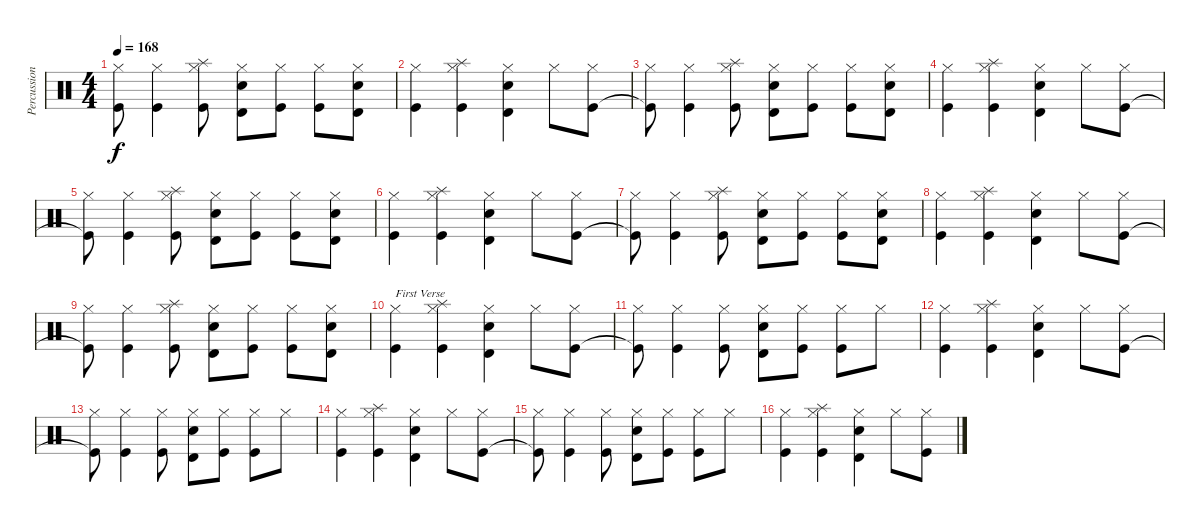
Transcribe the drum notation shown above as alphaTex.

\track ("Percussion" "Percussion") {instrument percussion}
\staff {score}
\articulation defaults
\ts (4 4)
\tempo 168
\clef neutral
\ks c
("Hi-Hat (closed)" "Kick (hit)"{t}).8{dy f} ("Hi-Hat (closed)" "Kick (hit)").4 ("Hi-Hat (closed)" "Splash (hit)" "Kick (hit)").8 ("Hi-Hat (closed)" "Timbale high (hit)" "Electric Snare (hit)").8 ("Hi-Hat (closed)" "Kick (hit)").8 ("Hi-Hat (closed)" "Kick (hit)").8 ("Hi-Hat (closed)" "Timbale high (hit)" "Electric Snare (hit)").8 |
("Hi-Hat (closed)" "Kick (hit)").4 ("Hi-Hat (closed)" "Splash (hit)" "Kick (hit)").4 ("Hi-Hat (closed)" "Timbale high (hit)" "Electric Snare (hit)").4 "Hi-Hat (closed)".8 ("Hi-Hat (closed)" "Kick (hit)").8 |
("Hi-Hat (closed)" "Kick (hit)"{t}).8 ("Hi-Hat (closed)" "Kick (hit)").4 ("Hi-Hat (closed)" "Splash (hit)" "Kick (hit)").8 ("Hi-Hat (closed)" "Timbale high (hit)" "Electric Snare (hit)").8 ("Hi-Hat (closed)" "Kick (hit)").8 ("Hi-Hat (closed)" "Kick (hit)").8 ("Hi-Hat (closed)" "Timbale high (hit)" "Electric Snare (hit)").8 |
("Hi-Hat (closed)" "Kick (hit)").4 ("Hi-Hat (closed)" "Splash (hit)" "Kick (hit)").4 ("Hi-Hat (closed)" "Timbale high (hit)" "Electric Snare (hit)").4 "Hi-Hat (closed)".8 ("Hi-Hat (closed)" "Kick (hit)").8 |
("Hi-Hat (closed)" "Kick (hit)"{t}).8 ("Hi-Hat (closed)" "Kick (hit)").4 ("Hi-Hat (closed)" "Splash (hit)" "Kick (hit)").8 ("Hi-Hat (closed)" "Timbale high (hit)" "Electric Snare (hit)").8 ("Hi-Hat (closed)" "Kick (hit)").8 ("Hi-Hat (closed)" "Kick (hit)").8 ("Hi-Hat (closed)" "Timbale high (hit)" "Electric Snare (hit)").8 |
("Hi-Hat (closed)" "Kick (hit)").4 ("Hi-Hat (closed)" "Splash (hit)" "Kick (hit)").4 ("Hi-Hat (closed)" "Timbale high (hit)" "Electric Snare (hit)").4 "Hi-Hat (closed)".8 ("Hi-Hat (closed)" "Kick (hit)").8 |
("Hi-Hat (closed)" "Kick (hit)"{t}).8 ("Hi-Hat (closed)" "Kick (hit)").4 ("Hi-Hat (closed)" "Splash (hit)" "Kick (hit)").8 ("Hi-Hat (closed)" "Timbale high (hit)" "Electric Snare (hit)").8 ("Hi-Hat (closed)" "Kick (hit)").8 ("Hi-Hat (closed)" "Kick (hit)").8 ("Hi-Hat (closed)" "Timbale high (hit)" "Electric Snare (hit)").8 |
("Hi-Hat (closed)" "Kick (hit)").4 ("Hi-Hat (closed)" "Splash (hit)" "Kick (hit)").4 ("Hi-Hat (closed)" "Timbale high (hit)" "Electric Snare (hit)").4 "Hi-Hat (closed)".8 ("Hi-Hat (closed)" "Kick (hit)").8 |
("Hi-Hat (closed)" "Kick (hit)"{t}).8 ("Hi-Hat (closed)" "Kick (hit)").4 ("Hi-Hat (closed)" "Splash (hit)" "Kick (hit)").8 ("Hi-Hat (closed)" "Timbale high (hit)" "Electric Snare (hit)").8 ("Hi-Hat (closed)" "Kick (hit)").8 ("Hi-Hat (closed)" "Kick (hit)").8 ("Hi-Hat (closed)" "Timbale high (hit)" "Electric Snare (hit)").8 |
("Hi-Hat (closed)" "Kick (hit)").4{txt "First Verse"} ("Hi-Hat (closed)" "Splash (hit)" "Kick (hit)").4 ("Hi-Hat (closed)" "Timbale high (hit)" "Electric Snare (hit)").4 "Hi-Hat (closed)".8 ("Hi-Hat (closed)" "Kick (hit)").8 |
("Hi-Hat (closed)" "Kick (hit)"{t}).8 ("Hi-Hat (closed)" "Kick (hit)").4 ("Hi-Hat (closed)" "Kick (hit)").8 ("Hi-Hat (closed)" "Timbale high (hit)" "Electric Snare (hit)").8 ("Hi-Hat (closed)" "Kick (hit)").8 ("Hi-Hat (closed)" "Kick (hit)").8 "Hi-Hat (closed)".8 |
("Hi-Hat (closed)" "Kick (hit)").4 ("Hi-Hat (closed)" "Splash (hit)" "Kick (hit)").4 ("Hi-Hat (closed)" "Timbale high (hit)" "Electric Snare (hit)").4 "Hi-Hat (closed)".8 ("Hi-Hat (closed)" "Kick (hit)").8 |
("Hi-Hat (closed)" "Kick (hit)"{t}).8 ("Hi-Hat (closed)" "Kick (hit)").4 ("Hi-Hat (closed)" "Kick (hit)").8 ("Hi-Hat (closed)" "Timbale high (hit)" "Electric Snare (hit)").8 ("Hi-Hat (closed)" "Kick (hit)").8 ("Hi-Hat (closed)" "Kick (hit)").8 "Hi-Hat (closed)".8 |
("Hi-Hat (closed)" "Kick (hit)").4 ("Hi-Hat (closed)" "Splash (hit)" "Kick (hit)").4 ("Hi-Hat (closed)" "Timbale high (hit)" "Electric Snare (hit)").4 "Hi-Hat (closed)".8 ("Hi-Hat (closed)" "Kick (hit)").8 |
("Hi-Hat (closed)" "Kick (hit)"{t}).8 ("Hi-Hat (closed)" "Kick (hit)").4 ("Hi-Hat (closed)" "Kick (hit)").8 ("Hi-Hat (closed)" "Timbale high (hit)" "Electric Snare (hit)").8 ("Hi-Hat (closed)" "Kick (hit)").8 ("Hi-Hat (closed)" "Kick (hit)").8 "Hi-Hat (closed)".8 |
("Hi-Hat (closed)" "Kick (hit)").4 ("Hi-Hat (closed)" "Splash (hit)" "Kick (hit)").4 ("Hi-Hat (closed)" "Timbale high (hit)" "Electric Snare (hit)").4 "Hi-Hat (closed)".8 ("Hi-Hat (closed)" "Kick (hit)").8
